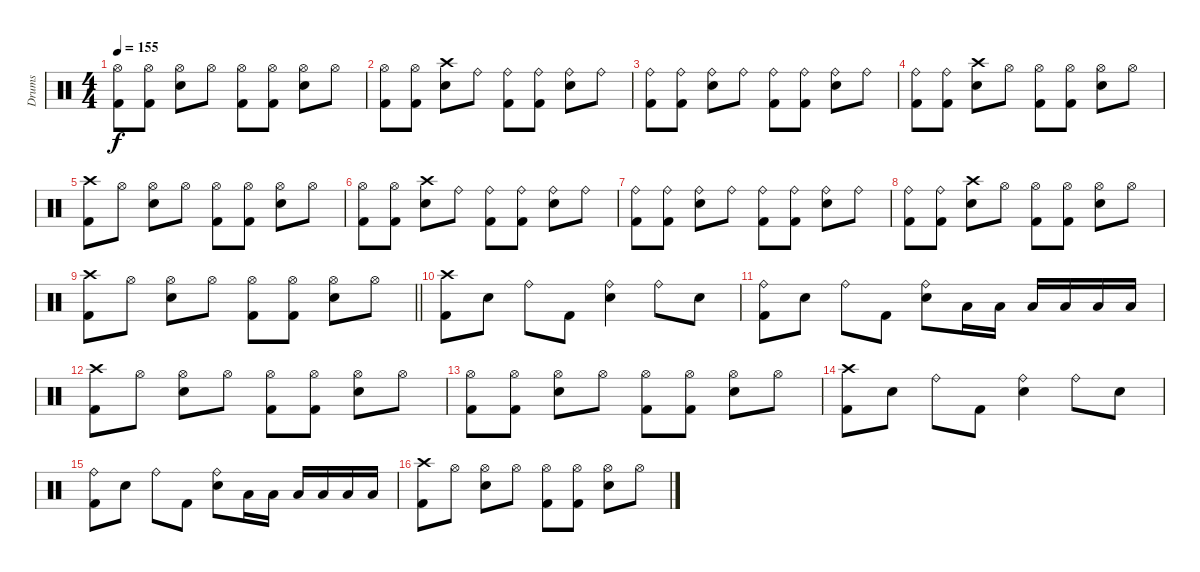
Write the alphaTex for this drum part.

\track ("Drums" "Drums") {instrument percussion}
\staff {score}
\articulation defaults
\ts (4 4)
\tempo 155
\clef neutral
\ks c
("Hi-Hat (open)" "Kick (hit) 2").8{dy f} ("Hi-Hat (open)" "Kick (hit) 2").8 ("Hi-Hat (open)" "Snare (hit) 2").8 "Hi-Hat (open)".8 ("Hi-Hat (open)" "Kick (hit) 2").8 ("Hi-Hat (open)" "Kick (hit) 2").8 ("Hi-Hat (open)" "Snare (hit) 2").8 "Hi-Hat (open)".8 |
("Hi-Hat (open)" "Kick (hit) 2").8 ("Hi-Hat (open)" "Kick (hit) 2").8 ("Crash high (hit)" "Snare (hit) 2").8 "Ride (bell)".8 ("Ride (bell)" "Kick (hit) 2").8 ("Ride (bell)" "Kick (hit) 2").8 ("Ride (bell)" "Snare (hit) 2").8 "Ride (bell)".8 |
("Ride (bell)" "Kick (hit) 2").8 ("Ride (bell)" "Kick (hit) 2").8 ("Ride (bell)" "Snare (hit) 2").8 "Ride (bell)".8 ("Ride (bell)" "Kick (hit) 2").8 ("Ride (bell)" "Kick (hit) 2").8 ("Ride (bell)" "Snare (hit) 2").8 "Ride (bell)".8 |
("Ride (bell)" "Kick (hit) 2").8 ("Ride (bell)" "Kick (hit) 2").8 ("Crash high (hit)" "Snare (hit) 2").8 "Hi-Hat (open)".8 ("Hi-Hat (open)" "Kick (hit) 2").8 ("Hi-Hat (open)" "Kick (hit) 2").8 ("Hi-Hat (open)" "Snare (hit) 2").8 "Hi-Hat (open)".8 |
("Crash high (hit)" "Kick (hit) 2").8 "Hi-Hat (open)".8 ("Hi-Hat (open)" "Snare (hit) 2").8 "Hi-Hat (open)".8 ("Hi-Hat (open)" "Kick (hit) 2").8 ("Hi-Hat (open)" "Kick (hit) 2").8 ("Hi-Hat (open)" "Snare (hit) 2").8 "Hi-Hat (open)".8 |
("Hi-Hat (open)" "Kick (hit) 2").8 ("Hi-Hat (open)" "Kick (hit) 2").8 ("Crash high (hit)" "Snare (hit) 2").8 "Ride (bell)".8 ("Ride (bell)" "Kick (hit) 2").8 ("Ride (bell)" "Kick (hit) 2").8 ("Ride (bell)" "Snare (hit) 2").8 "Ride (bell)".8 |
("Ride (bell)" "Kick (hit) 2").8 ("Ride (bell)" "Kick (hit) 2").8 ("Ride (bell)" "Snare (hit) 2").8 "Ride (bell)".8 ("Ride (bell)" "Kick (hit) 2").8 ("Ride (bell)" "Kick (hit) 2").8 ("Ride (bell)" "Snare (hit) 2").8 "Ride (bell)".8 |
("Ride (bell)" "Kick (hit) 2").8 ("Ride (bell)" "Kick (hit) 2").8 ("Crash high (hit)" "Snare (hit) 2").8 "Hi-Hat (open)".8 ("Hi-Hat (open)" "Kick (hit) 2").8 ("Hi-Hat (open)" "Kick (hit) 2").8 ("Hi-Hat (open)" "Snare (hit) 2").8 "Hi-Hat (open)".8 |
\barLineRight lightlight
("Crash high (hit)" "Kick (hit) 2").8 "Hi-Hat (open)".8 ("Hi-Hat (open)" "Snare (hit) 2").8 "Hi-Hat (open)".8 ("Hi-Hat (open)" "Kick (hit) 2").8 ("Hi-Hat (open)" "Kick (hit) 2").8 ("Hi-Hat (open)" "Snare (hit) 2").8 "Hi-Hat (open)".8 |
("Crash high (hit)" "Kick (hit) 2").8 "Snare (hit) 2".8 "Ride (bell)".8 "Kick (hit) 2".8 ("Ride (bell)" "Snare (hit) 2").4 "Ride (bell)".8 "Snare (hit) 2".8 |
("Ride (bell)" "Kick (hit) 2").8 "Snare (hit) 2".8 "Ride (bell)".8 "Kick (hit) 2".8 ("Ride (bell)" "Snare (hit) 2").8 "Low Tom (hit)".16 "Low Tom (hit)".16 "Low Tom (hit)".16 "Low Tom (hit)".16 "Low Tom (hit)".16 "Low Tom (hit)".16 |
("Crash high (hit)" "Kick (hit) 2").8 "Hi-Hat (open)".8 ("Hi-Hat (open)" "Snare (hit) 2").8 "Hi-Hat (open)".8 ("Hi-Hat (open)" "Kick (hit) 2").8 ("Hi-Hat (open)" "Kick (hit) 2").8 ("Hi-Hat (open)" "Snare (hit) 2").8 "Hi-Hat (open)".8 |
("Hi-Hat (open)" "Kick (hit) 2").8 ("Hi-Hat (open)" "Kick (hit) 2").8 ("Hi-Hat (open)" "Snare (hit) 2").8 "Hi-Hat (open)".8 ("Hi-Hat (open)" "Kick (hit) 2").8 ("Hi-Hat (open)" "Kick (hit) 2").8 ("Hi-Hat (open)" "Snare (hit) 2").8 "Hi-Hat (open)".8 |
("Crash high (hit)" "Kick (hit) 2").8 "Snare (hit) 2".8 "Ride (bell)".8 "Kick (hit) 2".8 ("Ride (bell)" "Snare (hit) 2").4 "Ride (bell)".8 "Snare (hit) 2".8 |
("Ride (bell)" "Kick (hit) 2").8 "Snare (hit) 2".8 "Ride (bell)".8 "Kick (hit) 2".8 ("Ride (bell)" "Snare (hit) 2").8 "Low Tom (hit)".16 "Low Tom (hit)".16 "Low Tom (hit)".16 "Low Tom (hit)".16 "Low Tom (hit)".16 "Low Tom (hit)".16 |
("Crash high (hit)" "Kick (hit) 2").8 "Hi-Hat (open)".8 ("Hi-Hat (open)" "Snare (hit) 2").8 "Hi-Hat (open)".8 ("Hi-Hat (open)" "Kick (hit) 2").8 ("Hi-Hat (open)" "Kick (hit) 2").8 ("Hi-Hat (open)" "Snare (hit) 2").8 "Hi-Hat (open)".8
